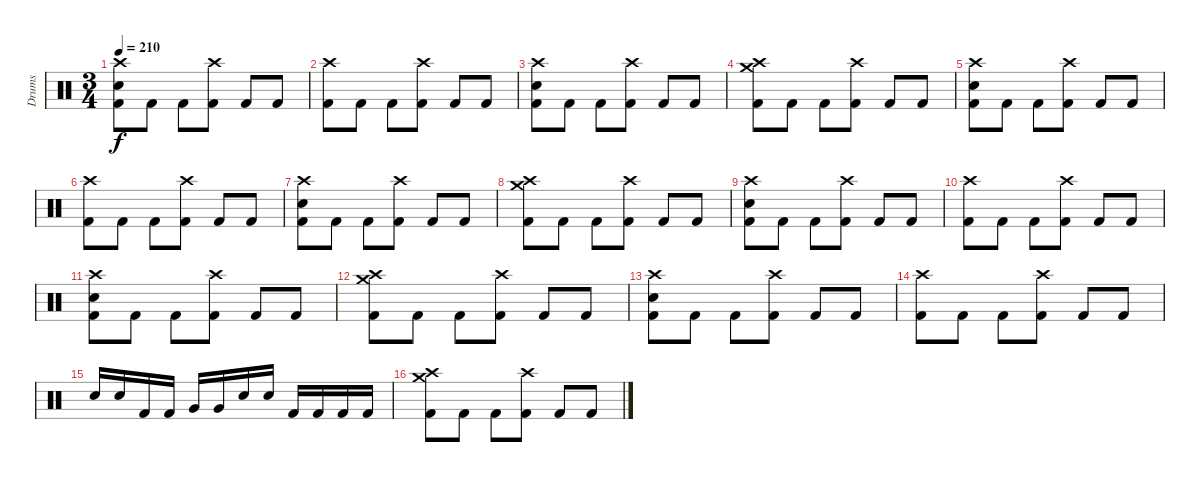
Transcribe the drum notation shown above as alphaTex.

\track ("Drums" "Drums") {instrument percussion}
\staff {score}
\articulation defaults
\ts (3 4)
\tempo 210
\clef neutral
\ks c
("Crash high (hit)" "Electric Snare (hit)" "Kick (hit) 2").8{dy f} "Kick (hit) 2".8 "Kick (hit) 2".8 ("Crash high (hit)" "Kick (hit) 2").8 "Kick (hit) 2".8 "Kick (hit) 2".8 |
("Crash high (hit)" "Kick (hit) 2").8 "Kick (hit) 2".8 "Kick (hit) 2".8 ("Crash high (hit)" "Kick (hit) 2").8 "Kick (hit) 2".8 "Kick (hit) 2".8 |
("Crash high (hit)" "Electric Snare (hit)" "Kick (hit) 2").8 "Kick (hit) 2".8 "Kick (hit) 2".8 ("Crash high (hit)" "Kick (hit) 2").8 "Kick (hit) 2".8 "Kick (hit) 2".8 |
("Crash high (hit)" "Crash medium (hit)" "Kick (hit) 2").8 "Kick (hit) 2".8 "Kick (hit) 2".8 ("Crash high (hit)" "Kick (hit) 2").8 "Kick (hit) 2".8 "Kick (hit) 2".8 |
("Crash high (hit)" "Electric Snare (hit)" "Kick (hit) 2").8 "Kick (hit) 2".8 "Kick (hit) 2".8 ("Crash high (hit)" "Kick (hit) 2").8 "Kick (hit) 2".8 "Kick (hit) 2".8 |
("Crash high (hit)" "Kick (hit) 2").8 "Kick (hit) 2".8 "Kick (hit) 2".8 ("Crash high (hit)" "Kick (hit) 2").8 "Kick (hit) 2".8 "Kick (hit) 2".8 |
("Crash high (hit)" "Electric Snare (hit)" "Kick (hit) 2").8 "Kick (hit) 2".8 "Kick (hit) 2".8 ("Crash high (hit)" "Kick (hit) 2").8 "Kick (hit) 2".8 "Kick (hit) 2".8 |
("Crash high (hit)" "Crash medium (hit)" "Kick (hit) 2").8 "Kick (hit) 2".8 "Kick (hit) 2".8 ("Crash high (hit)" "Kick (hit) 2").8 "Kick (hit) 2".8 "Kick (hit) 2".8 |
("Crash high (hit)" "Electric Snare (hit)" "Kick (hit) 2").8 "Kick (hit) 2".8 "Kick (hit) 2".8 ("Crash high (hit)" "Kick (hit) 2").8 "Kick (hit) 2".8 "Kick (hit) 2".8 |
("Crash high (hit)" "Kick (hit) 2").8 "Kick (hit) 2".8 "Kick (hit) 2".8 ("Crash high (hit)" "Kick (hit) 2").8 "Kick (hit) 2".8 "Kick (hit) 2".8 |
("Crash high (hit)" "Electric Snare (hit)" "Kick (hit) 2").8 "Kick (hit) 2".8 "Kick (hit) 2".8 ("Crash high (hit)" "Kick (hit) 2").8 "Kick (hit) 2".8 "Kick (hit) 2".8 |
("Crash high (hit)" "Crash medium (hit)" "Kick (hit) 2").8 "Kick (hit) 2".8 "Kick (hit) 2".8 ("Crash high (hit)" "Kick (hit) 2").8 "Kick (hit) 2".8 "Kick (hit) 2".8 |
("Crash high (hit)" "Electric Snare (hit)" "Kick (hit) 2").8 "Kick (hit) 2".8 "Kick (hit) 2".8 ("Crash high (hit)" "Kick (hit) 2").8 "Kick (hit) 2".8 "Kick (hit) 2".8 |
("Crash high (hit)" "Kick (hit) 2").8 "Kick (hit) 2".8 "Kick (hit) 2".8 ("Crash high (hit)" "Kick (hit) 2").8 "Kick (hit) 2".8 "Kick (hit) 2".8 |
"Electric Snare (hit)".16 "Electric Snare (hit)".16 "Kick (hit) 2".16 "Kick (hit) 2".16 "Very Low Tom (hit)".16 "Very Low Tom (hit)".16 "Electric Snare (hit)".16 "Electric Snare (hit)".16 "Kick (hit) 2".16 "Kick (hit) 2".16 "Kick (hit) 2".16 "Kick (hit) 2".16 |
("Crash high (hit)" "Crash medium (hit)" "Kick (hit) 2").8{volume 10} "Kick (hit) 2".8 "Kick (hit) 2".8 ("Crash high (hit)" "Kick (hit) 2").8 "Kick (hit) 2".8 "Kick (hit) 2".8
